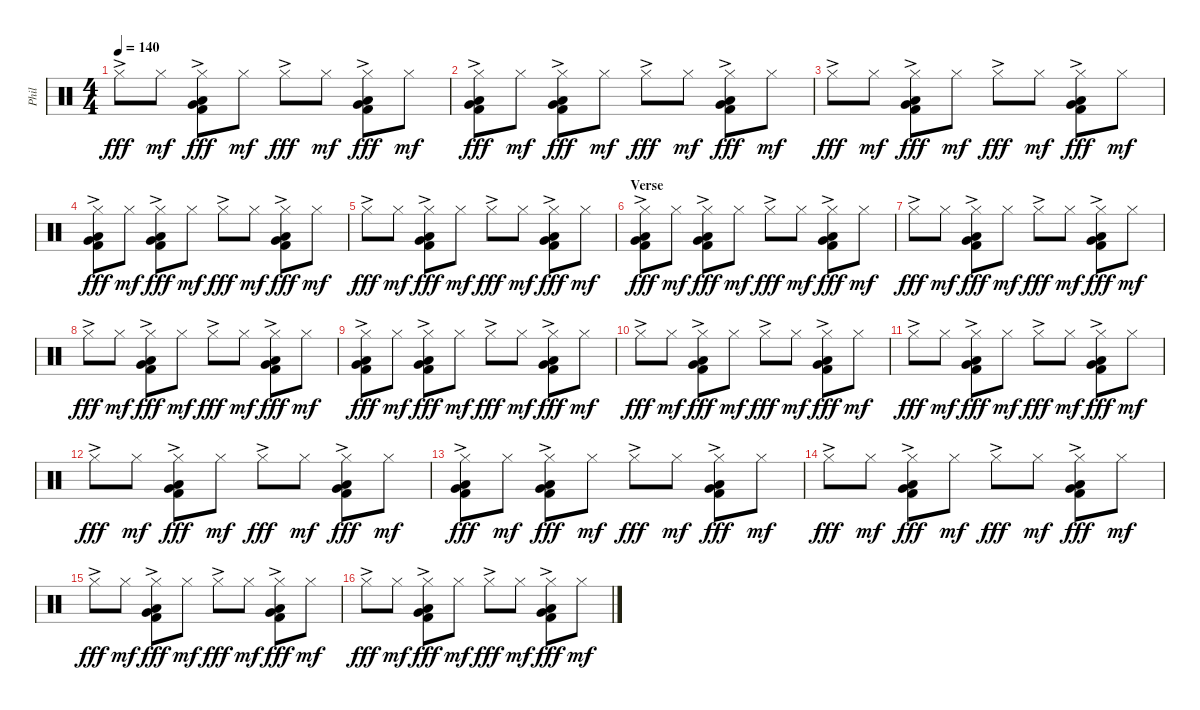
\track ("Phil" "Phil") {instrument percussion}
\staff {score}
\articulation defaults
\ts (4 4)
\tempo 140
\clef neutral
\ks c "Hi-Hat (closed)"{ac}.8{dy fff} "Hi-Hat (closed)".8{dy mf}
("Hi-Hat (closed)"{ac} "Very Low Tom (hit)" "Low Floor Tom (hit)" "Kick (hit) 2").8{dy fff} "Hi-Hat (closed)".8{dy mf} "Hi-Hat (closed)"{ac}.8{dy fff} "Hi-Hat (closed)".8{dy mf} ("Hi-Hat (closed)"{ac} "Very Low Tom (hit)" "Low Floor Tom (hit)" "Kick (hit) 2").8{dy fff} "Hi-Hat (closed)".8{dy mf} |
("Hi-Hat (closed)"{ac} "Very Low Tom (hit)"{ac} "Low Floor Tom (hit)"{ac} "Kick (hit) 2"{ac}).8{dy fff} "Hi-Hat (closed)".8{dy mf} ("Hi-Hat (closed)"{ac} "Very Low Tom (hit)"{ac} "Low Floor Tom (hit)"{ac} "Kick (hit) 2"{ac}).8{dy fff} "Hi-Hat (closed)".8{dy mf} "Hi-Hat (closed)"{ac}.8{dy fff} "Hi-Hat (closed)".8{dy mf} ("Hi-Hat (closed)"{ac} "Very Low Tom (hit)" "Low Floor Tom (hit)" "Kick (hit) 2").8{dy fff} "Hi-Hat (closed)".8{dy mf} |
"Hi-Hat (closed)"{ac}.8{dy fff} "Hi-Hat (closed)".8{dy mf} ("Hi-Hat (closed)"{ac} "Very Low Tom (hit)" "Low Floor Tom (hit)" "Kick (hit) 2").8{dy fff} "Hi-Hat (closed)".8{dy mf} "Hi-Hat (closed)"{ac}.8{dy fff} "Hi-Hat (closed)".8{dy mf} ("Hi-Hat (closed)"{ac} "Very Low Tom (hit)" "Low Floor Tom (hit)" "Kick (hit) 2").8{dy fff} "Hi-Hat (closed)".8{dy mf} |
("Hi-Hat (closed)"{ac} "Very Low Tom (hit)"{ac} "Low Floor Tom (hit)"{ac} "Kick (hit) 2"{ac}).8{dy fff} "Hi-Hat (closed)".8{dy mf} ("Hi-Hat (closed)"{ac} "Very Low Tom (hit)"{ac} "Low Floor Tom (hit)"{ac} "Kick (hit) 2"{ac}).8{dy fff} "Hi-Hat (closed)".8{dy mf} "Hi-Hat (closed)"{ac}.8{dy fff} "Hi-Hat (closed)".8{dy mf} ("Hi-Hat (closed)"{ac} "Very Low Tom (hit)" "Low Floor Tom (hit)" "Kick (hit) 2").8{dy fff} "Hi-Hat (closed)".8{dy mf} |
"Hi-Hat (closed)"{ac}.8{dy fff} "Hi-Hat (closed)".8{dy mf} ("Hi-Hat (closed)"{ac} "Very Low Tom (hit)" "Low Floor Tom (hit)" "Kick (hit) 2").8{dy fff} "Hi-Hat (closed)".8{dy mf} "Hi-Hat (closed)"{ac}.8{dy fff} "Hi-Hat (closed)".8{dy mf} ("Hi-Hat (closed)"{ac} "Very Low Tom (hit)" "Low Floor Tom (hit)" "Kick (hit) 2").8{dy fff} "Hi-Hat (closed)".8{dy mf} |
\section ("" "Verse")
("Hi-Hat (closed)"{ac} "Very Low Tom (hit)"{ac} "Low Floor Tom (hit)"{ac} "Kick (hit) 2"{ac}).8{dy fff} "Hi-Hat (closed)".8{dy mf} ("Hi-Hat (closed)"{ac} "Very Low Tom (hit)"{ac} "Low Floor Tom (hit)"{ac} "Kick (hit) 2"{ac}).8{dy fff} "Hi-Hat (closed)".8{dy mf} "Hi-Hat (closed)"{ac}.8{dy fff} "Hi-Hat (closed)".8{dy mf} ("Hi-Hat (closed)"{ac} "Very Low Tom (hit)" "Low Floor Tom (hit)" "Kick (hit) 2").8{dy fff} "Hi-Hat (closed)".8{dy mf} |
"Hi-Hat (closed)"{ac}.8{dy fff} "Hi-Hat (closed)".8{dy mf} ("Hi-Hat (closed)"{ac} "Very Low Tom (hit)" "Low Floor Tom (hit)" "Kick (hit) 2").8{dy fff} "Hi-Hat (closed)".8{dy mf} "Hi-Hat (closed)"{ac}.8{dy fff} "Hi-Hat (closed)".8{dy mf} ("Hi-Hat (closed)"{ac} "Very Low Tom (hit)" "Low Floor Tom (hit)" "Kick (hit) 2").8{dy fff} "Hi-Hat (closed)".8{dy mf} |
"Hi-Hat (closed)"{ac}.8{dy fff} "Hi-Hat (closed)".8{dy mf} ("Hi-Hat (closed)"{ac} "Very Low Tom (hit)" "Low Floor Tom (hit)" "Kick (hit) 2").8{dy fff} "Hi-Hat (closed)".8{dy mf} "Hi-Hat (closed)"{ac}.8{dy fff} "Hi-Hat (closed)".8{dy mf} ("Hi-Hat (closed)"{ac} "Very Low Tom (hit)" "Low Floor Tom (hit)" "Kick (hit) 2").8{dy fff} "Hi-Hat (closed)".8{dy mf} |
("Hi-Hat (closed)"{ac} "Very Low Tom (hit)"{ac} "Low Floor Tom (hit)"{ac} "Kick (hit) 2"{ac}).8{dy fff} "Hi-Hat (closed)".8{dy mf} ("Hi-Hat (closed)"{ac} "Very Low Tom (hit)"{ac} "Low Floor Tom (hit)"{ac} "Kick (hit) 2"{ac}).8{dy fff} "Hi-Hat (closed)".8{dy mf} "Hi-Hat (closed)"{ac}.8{dy fff} "Hi-Hat (closed)".8{dy mf} ("Hi-Hat (closed)"{ac} "Very Low Tom (hit)" "Low Floor Tom (hit)" "Kick (hit) 2").8{dy fff} "Hi-Hat (closed)".8{dy mf} |
"Hi-Hat (closed)"{ac}.8{dy fff} "Hi-Hat (closed)".8{dy mf} ("Hi-Hat (closed)"{ac} "Very Low Tom (hit)" "Low Floor Tom (hit)" "Kick (hit) 2").8{dy fff} "Hi-Hat (closed)".8{dy mf} "Hi-Hat (closed)"{ac}.8{dy fff} "Hi-Hat (closed)".8{dy mf} ("Hi-Hat (closed)"{ac} "Very Low Tom (hit)" "Low Floor Tom (hit)" "Kick (hit) 2").8{dy fff} "Hi-Hat (closed)".8{dy mf} |
"Hi-Hat (closed)"{ac}.8{dy fff} "Hi-Hat (closed)".8{dy mf} ("Hi-Hat (closed)"{ac} "Very Low Tom (hit)" "Low Floor Tom (hit)" "Kick (hit) 2").8{dy fff} "Hi-Hat (closed)".8{dy mf} "Hi-Hat (closed)"{ac}.8{dy fff} "Hi-Hat (closed)".8{dy mf} ("Hi-Hat (closed)"{ac} "Very Low Tom (hit)" "Low Floor Tom (hit)" "Kick (hit) 2").8{dy fff} "Hi-Hat (closed)".8{dy mf} |
"Hi-Hat (closed)"{ac}.8{dy fff} "Hi-Hat (closed)".8{dy mf} ("Hi-Hat (closed)"{ac} "Very Low Tom (hit)" "Low Floor Tom (hit)" "Kick (hit) 2").8{dy fff} "Hi-Hat (closed)".8{dy mf} "Hi-Hat (closed)"{ac}.8{dy fff} "Hi-Hat (closed)".8{dy mf} ("Hi-Hat (closed)"{ac} "Very Low Tom (hit)" "Low Floor Tom (hit)" "Kick (hit) 2").8{dy fff} "Hi-Hat (closed)".8{dy mf} |
("Hi-Hat (closed)"{ac} "Very Low Tom (hit)"{ac} "Low Floor Tom (hit)"{ac} "Kick (hit) 2"{ac}).8{dy fff} "Hi-Hat (closed)".8{dy mf} ("Hi-Hat (closed)"{ac} "Very Low Tom (hit)"{ac} "Low Floor Tom (hit)"{ac} "Kick (hit) 2"{ac}).8{dy fff} "Hi-Hat (closed)".8{dy mf} "Hi-Hat (closed)"{ac}.8{dy fff} "Hi-Hat (closed)".8{dy mf} ("Hi-Hat (closed)"{ac} "Very Low Tom (hit)" "Low Floor Tom (hit)" "Kick (hit) 2").8{dy fff} "Hi-Hat (closed)".8{dy mf} |
"Hi-Hat (closed)"{ac}.8{dy fff} "Hi-Hat (closed)".8{dy mf} ("Hi-Hat (closed)"{ac} "Very Low Tom (hit)" "Low Floor Tom (hit)" "Kick (hit) 2").8{dy fff} "Hi-Hat (closed)".8{dy mf} "Hi-Hat (closed)"{ac}.8{dy fff} "Hi-Hat (closed)".8{dy mf} ("Hi-Hat (closed)"{ac} "Very Low Tom (hit)" "Low Floor Tom (hit)" "Kick (hit) 2").8{dy fff} "Hi-Hat (closed)".8{dy mf} |
"Hi-Hat (closed)"{ac}.8{dy fff} "Hi-Hat (closed)".8{dy mf} ("Hi-Hat (closed)"{ac} "Very Low Tom (hit)" "Low Floor Tom (hit)" "Kick (hit) 2").8{dy fff} "Hi-Hat (closed)".8{dy mf} "Hi-Hat (closed)"{ac}.8{dy fff} "Hi-Hat (closed)".8{dy mf} ("Hi-Hat (closed)"{ac} "Very Low Tom (hit)" "Low Floor Tom (hit)" "Kick (hit) 2").8{dy fff} "Hi-Hat (closed)".8{dy mf} |
"Hi-Hat (closed)"{ac}.8{dy fff} "Hi-Hat (closed)".8{dy mf} ("Hi-Hat (closed)"{ac} "Very Low Tom (hit)" "Low Floor Tom (hit)" "Kick (hit) 2").8{dy fff} "Hi-Hat (closed)".8{dy mf} "Hi-Hat (closed)"{ac}.8{dy fff} "Hi-Hat (closed)".8{dy mf} ("Hi-Hat (closed)"{ac} "Very Low Tom (hit)" "Low Floor Tom (hit)" "Kick (hit) 2").8{dy fff} "Hi-Hat (closed)".8{dy mf}
